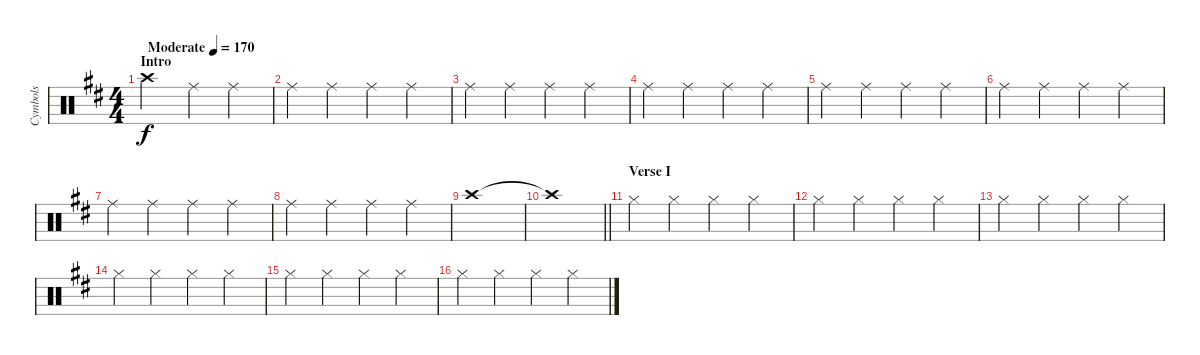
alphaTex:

\track ("Cymbols" "Cymbols") {instrument percussion}
\staff {score}
\articulation defaults
\ts (4 4)
\section ("" "Intro")
\tempo (170 "Moderate")
\clef neutral
\ks d "Crash high (hit)".2{dy f} "Ride (middle)".4 "Ride (middle)".4
|
"Ride (middle)".4 "Ride (middle)".4 "Ride (middle)".4 "Ride (middle)".4 |
"Ride (middle)".4 "Ride (middle)".4 "Ride (middle)".4 "Ride (middle)".4 |
"Ride (middle)".4 "Ride (middle)".4 "Ride (middle)".4 "Ride (middle)".4 |
"Ride (middle)".4 "Ride (middle)".4 "Ride (middle)".4 "Ride (middle)".4 |
"Ride (middle)".4 "Ride (middle)".4 "Ride (middle)".4 "Ride (middle)".4 |
"Ride (middle)".4 "Ride (middle)".4 "Ride (middle)".4 "Ride (middle)".4 |
"Ride (middle)".4 "Ride (middle)".4 "Ride (middle)".4 "Ride (middle)".4 |
"Crash high (hit)".1 |
\barLineRight lightlight "Crash high (hit)"{t}.1
|
\section ("" "Verse I")
"Hi-Hat (closed)".4 "Hi-Hat (closed)".4 "Hi-Hat (closed)".4 "Hi-Hat (closed)".4 |
"Hi-Hat (closed)".4 "Hi-Hat (closed)".4 "Hi-Hat (closed)".4 "Hi-Hat (closed)".4 |
"Hi-Hat (closed)".4 "Hi-Hat (closed)".4 "Hi-Hat (closed)".4 "Hi-Hat (closed)".4 |
"Hi-Hat (closed)".4 "Hi-Hat (closed)".4 "Hi-Hat (closed)".4 "Hi-Hat (closed)".4 |
"Hi-Hat (closed)".4 "Hi-Hat (closed)".4 "Hi-Hat (closed)".4 "Hi-Hat (closed)".4 |
"Hi-Hat (closed)".4 "Hi-Hat (closed)".4 "Hi-Hat (closed)".4 "Hi-Hat (closed)".4
